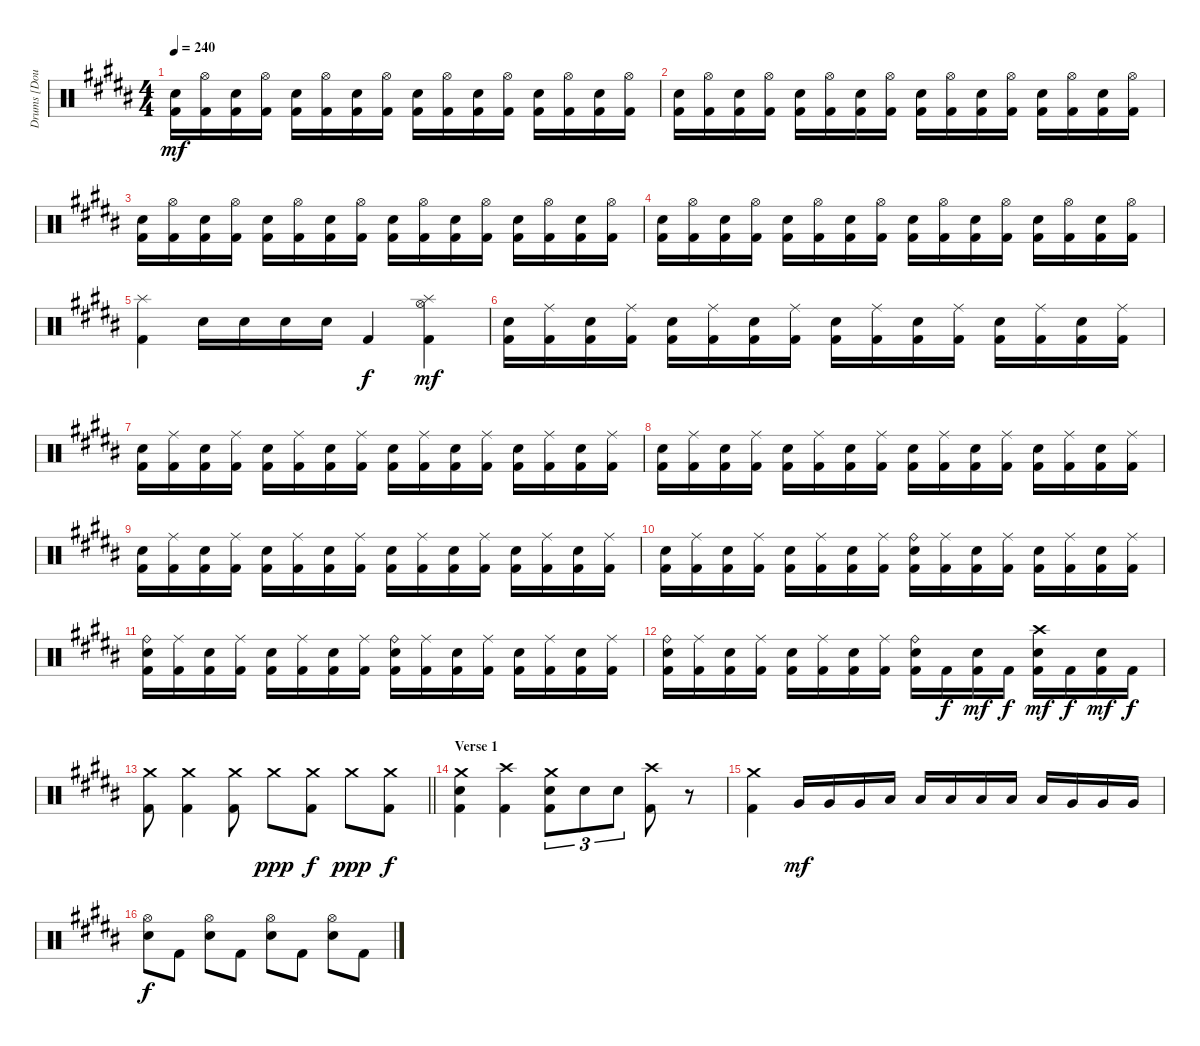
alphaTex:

\track ("Drums [Doug Anderson]" "Drums [Dou") {instrument percussion}
\staff {score}
\articulation defaults
\ts (4 4)
\tempo 240
\clef neutral
\ks b
("Electric Snare (hit)" "Kick (hit) 2").16{dy mf} ("Hi-Hat (open)" "Kick (hit) 2").16 ("Electric Snare (hit)" "Kick (hit) 2").16 ("Hi-Hat (open)" "Kick (hit) 2").16 ("Electric Snare (hit)" "Kick (hit) 2").16 ("Hi-Hat (open)" "Kick (hit) 2").16 ("Electric Snare (hit)" "Kick (hit) 2").16 ("Hi-Hat (open)" "Kick (hit) 2").16 ("Electric Snare (hit)" "Kick (hit) 2").16 ("Hi-Hat (open)" "Kick (hit) 2").16 ("Electric Snare (hit)" "Kick (hit) 2").16 ("Hi-Hat (open)" "Kick (hit) 2").16 ("Electric Snare (hit)" "Kick (hit) 2").16 ("Hi-Hat (open)" "Kick (hit) 2").16 ("Electric Snare (hit)" "Kick (hit) 2").16 ("Hi-Hat (open)" "Kick (hit) 2").16 |
("Electric Snare (hit)" "Kick (hit) 2").16 ("Hi-Hat (open)" "Kick (hit) 2").16 ("Electric Snare (hit)" "Kick (hit) 2").16 ("Hi-Hat (open)" "Kick (hit) 2").16 ("Electric Snare (hit)" "Kick (hit) 2").16 ("Hi-Hat (open)" "Kick (hit) 2").16 ("Electric Snare (hit)" "Kick (hit) 2").16 ("Hi-Hat (open)" "Kick (hit) 2").16 ("Electric Snare (hit)" "Kick (hit) 2").16 ("Hi-Hat (open)" "Kick (hit) 2").16 ("Electric Snare (hit)" "Kick (hit) 2").16 ("Hi-Hat (open)" "Kick (hit) 2").16 ("Electric Snare (hit)" "Kick (hit) 2").16 ("Hi-Hat (open)" "Kick (hit) 2").16 ("Electric Snare (hit)" "Kick (hit) 2").16 ("Hi-Hat (open)" "Kick (hit) 2").16 |
("Electric Snare (hit)" "Kick (hit) 2").16 ("Hi-Hat (open)" "Kick (hit) 2").16 ("Electric Snare (hit)" "Kick (hit) 2").16 ("Hi-Hat (open)" "Kick (hit) 2").16 ("Electric Snare (hit)" "Kick (hit) 2").16 ("Hi-Hat (open)" "Kick (hit) 2").16 ("Electric Snare (hit)" "Kick (hit) 2").16 ("Hi-Hat (open)" "Kick (hit) 2").16 ("Electric Snare (hit)" "Kick (hit) 2").16 ("Hi-Hat (open)" "Kick (hit) 2").16 ("Electric Snare (hit)" "Kick (hit) 2").16 ("Hi-Hat (open)" "Kick (hit) 2").16 ("Electric Snare (hit)" "Kick (hit) 2").16 ("Hi-Hat (open)" "Kick (hit) 2").16 ("Electric Snare (hit)" "Kick (hit) 2").16 ("Hi-Hat (open)" "Kick (hit) 2").16 |
("Electric Snare (hit)" "Kick (hit) 2").16 ("Hi-Hat (open)" "Kick (hit) 2").16 ("Electric Snare (hit)" "Kick (hit) 2").16 ("Hi-Hat (open)" "Kick (hit) 2").16 ("Electric Snare (hit)" "Kick (hit) 2").16 ("Hi-Hat (open)" "Kick (hit) 2").16 ("Electric Snare (hit)" "Kick (hit) 2").16 ("Hi-Hat (open)" "Kick (hit) 2").16 ("Electric Snare (hit)" "Kick (hit) 2").16 ("Hi-Hat (open)" "Kick (hit) 2").16 ("Electric Snare (hit)" "Kick (hit) 2").16 ("Hi-Hat (open)" "Kick (hit) 2").16 ("Electric Snare (hit)" "Kick (hit) 2").16 ("Hi-Hat (open)" "Kick (hit) 2").16 ("Electric Snare (hit)" "Kick (hit) 2").16 ("Hi-Hat (open)" "Kick (hit) 2").16 |
("Splash (hit)" "Kick (hit) 2").4 "Electric Snare (hit)".16 "Electric Snare (hit)".16 "Electric Snare (hit)".16 "Electric Snare (hit)".16 "Kick (hit) 2".4{dy f} ("Splash (hit)" "Hi-Hat (open)" "Kick (hit) 2").4{dy mf} |
("Electric Snare (hit)" "Kick (hit) 2").16 ("Ride (middle)" "Kick (hit) 2").16 ("Electric Snare (hit)" "Kick (hit) 2").16 ("Ride (middle)" "Kick (hit) 2").16 ("Electric Snare (hit)" "Kick (hit) 2").16 ("Ride (middle)" "Kick (hit) 2").16 ("Electric Snare (hit)" "Kick (hit) 2").16 ("Ride (middle)" "Kick (hit) 2").16 ("Electric Snare (hit)" "Kick (hit) 2").16 ("Ride (middle)" "Kick (hit) 2").16 ("Electric Snare (hit)" "Kick (hit) 2").16 ("Ride (middle)" "Kick (hit) 2").16 ("Electric Snare (hit)" "Kick (hit) 2").16 ("Ride (middle)" "Kick (hit) 2").16 ("Electric Snare (hit)" "Kick (hit) 2").16 ("Ride (middle)" "Kick (hit) 2").16 |
("Electric Snare (hit)" "Kick (hit) 2").16 ("Ride (middle)" "Kick (hit) 2").16 ("Electric Snare (hit)" "Kick (hit) 2").16 ("Ride (middle)" "Kick (hit) 2").16 ("Electric Snare (hit)" "Kick (hit) 2").16 ("Ride (middle)" "Kick (hit) 2").16 ("Electric Snare (hit)" "Kick (hit) 2").16 ("Ride (middle)" "Kick (hit) 2").16 ("Electric Snare (hit)" "Kick (hit) 2").16 ("Ride (middle)" "Kick (hit) 2").16 ("Electric Snare (hit)" "Kick (hit) 2").16 ("Ride (middle)" "Kick (hit) 2").16 ("Electric Snare (hit)" "Kick (hit) 2").16 ("Ride (middle)" "Kick (hit) 2").16 ("Electric Snare (hit)" "Kick (hit) 2").16 ("Ride (middle)" "Kick (hit) 2").16 |
("Electric Snare (hit)" "Kick (hit) 2").16 ("Ride (middle)" "Kick (hit) 2").16 ("Electric Snare (hit)" "Kick (hit) 2").16 ("Ride (middle)" "Kick (hit) 2").16 ("Electric Snare (hit)" "Kick (hit) 2").16 ("Ride (middle)" "Kick (hit) 2").16 ("Electric Snare (hit)" "Kick (hit) 2").16 ("Ride (middle)" "Kick (hit) 2").16 ("Electric Snare (hit)" "Kick (hit) 2").16 ("Ride (middle)" "Kick (hit) 2").16 ("Electric Snare (hit)" "Kick (hit) 2").16 ("Ride (middle)" "Kick (hit) 2").16 ("Electric Snare (hit)" "Kick (hit) 2").16 ("Ride (middle)" "Kick (hit) 2").16 ("Electric Snare (hit)" "Kick (hit) 2").16 ("Ride (middle)" "Kick (hit) 2").16 |
("Electric Snare (hit)" "Kick (hit) 2").16 ("Ride (middle)" "Kick (hit) 2").16 ("Electric Snare (hit)" "Kick (hit) 2").16 ("Ride (middle)" "Kick (hit) 2").16 ("Electric Snare (hit)" "Kick (hit) 2").16 ("Ride (middle)" "Kick (hit) 2").16 ("Electric Snare (hit)" "Kick (hit) 2").16 ("Ride (middle)" "Kick (hit) 2").16 ("Electric Snare (hit)" "Kick (hit) 2").16 ("Ride (middle)" "Kick (hit) 2").16 ("Electric Snare (hit)" "Kick (hit) 2").16 ("Ride (middle)" "Kick (hit) 2").16 ("Electric Snare (hit)" "Kick (hit) 2").16 ("Ride (middle)" "Kick (hit) 2").16 ("Electric Snare (hit)" "Kick (hit) 2").16 ("Ride (middle)" "Kick (hit) 2").16 |
("Electric Snare (hit)" "Kick (hit) 2").16 ("Ride (middle)" "Kick (hit) 2").16 ("Electric Snare (hit)" "Kick (hit) 2").16 ("Ride (middle)" "Kick (hit) 2").16 ("Electric Snare (hit)" "Kick (hit) 2").16 ("Ride (middle)" "Kick (hit) 2").16 ("Electric Snare (hit)" "Kick (hit) 2").16 ("Ride (middle)" "Kick (hit) 2").16 ("Ride (bell)" "Electric Snare (hit)" "Kick (hit) 2").16 ("Ride (middle)" "Kick (hit) 2").16 ("Electric Snare (hit)" "Kick (hit) 2").16 ("Ride (middle)" "Kick (hit) 2").16 ("Electric Snare (hit)" "Kick (hit) 2").16 ("Ride (middle)" "Kick (hit) 2").16 ("Electric Snare (hit)" "Kick (hit) 2").16 ("Ride (middle)" "Kick (hit) 2").16 |
("Ride (bell)" "Electric Snare (hit)" "Kick (hit) 2").16 ("Ride (middle)" "Kick (hit) 2").16 ("Electric Snare (hit)" "Kick (hit) 2").16 ("Ride (middle)" "Kick (hit) 2").16 ("Electric Snare (hit)" "Kick (hit) 2").16 ("Ride (middle)" "Kick (hit) 2").16 ("Electric Snare (hit)" "Kick (hit) 2").16 ("Ride (middle)" "Kick (hit) 2").16 ("Ride (bell)" "Electric Snare (hit)" "Kick (hit) 2").16 ("Ride (middle)" "Kick (hit) 2").16 ("Electric Snare (hit)" "Kick (hit) 2").16 ("Ride (middle)" "Kick (hit) 2").16 ("Electric Snare (hit)" "Kick (hit) 2").16 ("Ride (middle)" "Kick (hit) 2").16 ("Electric Snare (hit)" "Kick (hit) 2").16 ("Ride (middle)" "Kick (hit) 2").16 |
("Ride (bell)" "Electric Snare (hit)" "Kick (hit) 2").16 ("Ride (middle)" "Kick (hit) 2").16 ("Electric Snare (hit)" "Kick (hit) 2").16 ("Ride (middle)" "Kick (hit) 2").16 ("Electric Snare (hit)" "Kick (hit) 2").16 ("Ride (middle)" "Kick (hit) 2").16 ("Electric Snare (hit)" "Kick (hit) 2").16 ("Ride (middle)" "Kick (hit) 2").16 ("Ride (bell)" "Electric Snare (hit)" "Kick (hit) 2").16 "Kick (hit) 2".16{dy f} ("Electric Snare (hit)" "Kick (hit) 2").16{dy mf} "Kick (hit) 2".16{dy f} ("Crash high (hit)" "Electric Snare (hit)" "Kick (hit) 2").16{dy mf} "Kick (hit) 2".16{dy f} ("Electric Snare (hit)" "Kick (hit) 2").16{dy mf} "Kick (hit) 2".16{dy f} |
\barLineRight lightlight
("Crash medium (hit)" "Kick (hit) 2").8 ("Crash medium (hit)" "Kick (hit) 2").4 ("Crash medium (hit)" "Kick (hit) 2").8 "Crash medium (hit)".8{dy ppp} ("Crash medium (hit)" "Kick (hit) 2").8{dy f} "Crash medium (hit)".8{dy ppp} ("Crash medium (hit)" "Kick (hit) 2").8{dy f} |
\section ("" "Verse 1")
("Crash medium (hit)" "Electric Snare (hit)" "Kick (hit) 2").4 ("Crash high (hit)" "Kick (hit) 2").4 ("Crash medium (hit)" "Electric Snare (hit)" "Kick (hit) 2").8{tu (3 2)} "Electric Snare (hit)".8{tu (3 2)} "Electric Snare (hit)".8{tu (3 2)} ("Crash high (hit)" "Kick (hit) 2").8 r.8 |
("Crash medium (hit)" "Kick (hit) 2").4 "Very Low Tom (hit)".16{dy mf} "Very Low Tom (hit)".16 "Very Low Tom (hit)".16 "Low Floor Tom (hit)".16 "Low Floor Tom (hit)".16 "Low Floor Tom (hit)".16 "Low Tom (hit)".16 "Low Tom (hit)".16 "Low Tom (hit)".16 "Very Low Tom (hit)".16 "Very Low Tom (hit)".16 "Very Low Tom (hit)".16 |
("Hi-Hat (open)" "Electric Snare (hit)").8{dy f} "Kick (hit) 2".8 ("Hi-Hat (open)" "Electric Snare (hit)").8 "Kick (hit) 2".8 ("Hi-Hat (open)" "Electric Snare (hit)").8 "Kick (hit) 2".8 ("Hi-Hat (open)" "Electric Snare (hit)").8 "Kick (hit) 2".8
